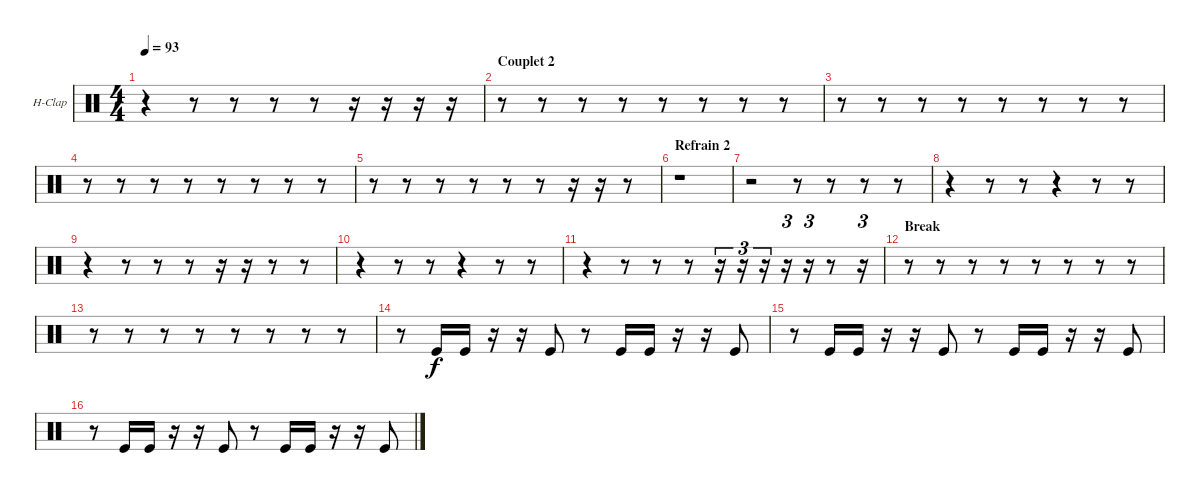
\bracketExtendMode groupsimilarinstruments
\firstSystemTrackNameOrientation horizontal
\otherSystemsTrackNameOrientation horizontal
\track ("Hand Clap" "H-Clap") {instrument percussion}
\staff {score}
\articulation defaults
\ts (4 4)
\tempo 93
\clef neutral
\ks c
r.4{dy f} r.8 r.8 r.8 r.8 r.16 r.16 r.16 r.16 |
\section ("" "Couplet 2")
r.8 r.8 r.8 r.8 r.8 r.8 r.8 r.8 |
r.8 r.8 r.8 r.8 r.8 r.8 r.8 r.8 |
r.8 r.8 r.8 r.8 r.8 r.8 r.8 r.8 |
r.8 r.8 r.8 r.8 r.8 r.8 r.16 r.16 r.8 |
\section ("" "Refrain 2")
r.1 |
r.2 r.8 r.8 r.8 r.8 |
r.4 r.8 r.8 r.4 r.8 r.8 |
r.4 r.8 r.8 r.8 r.16 r.16 r.8 r.8 |
r.4 r.8 r.8 r.4 r.8 r.8 |
r.4 r.8 r.8 r.8 r.16{tu (3 2)} r.16{tu (3 2)} r.16{tu (3 2)} r.16{tu (3 2)} r.16{tu (3 2)} r.8 r.16{tu (3 2)} |
\section ("" "Break")
r.8 r.8 r.8 r.8 r.8 r.8 r.8 r.8 |
r.8 r.8 r.8 r.8 r.8 r.8 r.8 r.8 |
r.8 "Kick (hit)".16 "Kick (hit)".16 r.16 r.16 "Kick (hit)".8 r.8 "Kick (hit)".16 "Kick (hit)".16 r.16 r.16 "Kick (hit)".8 |
r.8 "Kick (hit)".16 "Kick (hit)".16 r.16 r.16 "Kick (hit)".8 r.8 "Kick (hit)".16 "Kick (hit)".16 r.16 r.16 "Kick (hit)".8 |
r.8 "Kick (hit)".16 "Kick (hit)".16 r.16 r.16 "Kick (hit)".8 r.8 "Kick (hit)".16 "Kick (hit)".16 r.16 r.16 "Kick (hit)".8
